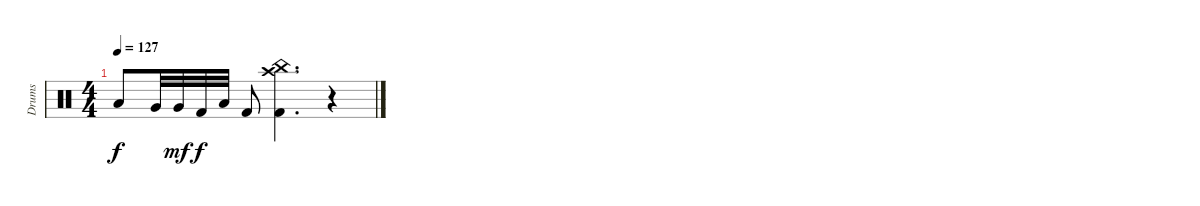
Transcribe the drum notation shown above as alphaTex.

\track ("Drums" "Drums") {instrument percussion}
\staff {score}
\articulation defaults
\ts (4 4)
\tempo 127
\clef neutral
\ks c "Low Floor Tom (hit)".8{dy f} "Very Low Tom (hit)".32 "Very Low Tom (hit)".32{dy mf} "Kick (hit) 2".32{dy f} "Low Floor Tom (hit)".32 "Kick (hit) 2".8
("Kick (hit) 2" "Crash high (hit)" "China (hit)").4{d} r.4
